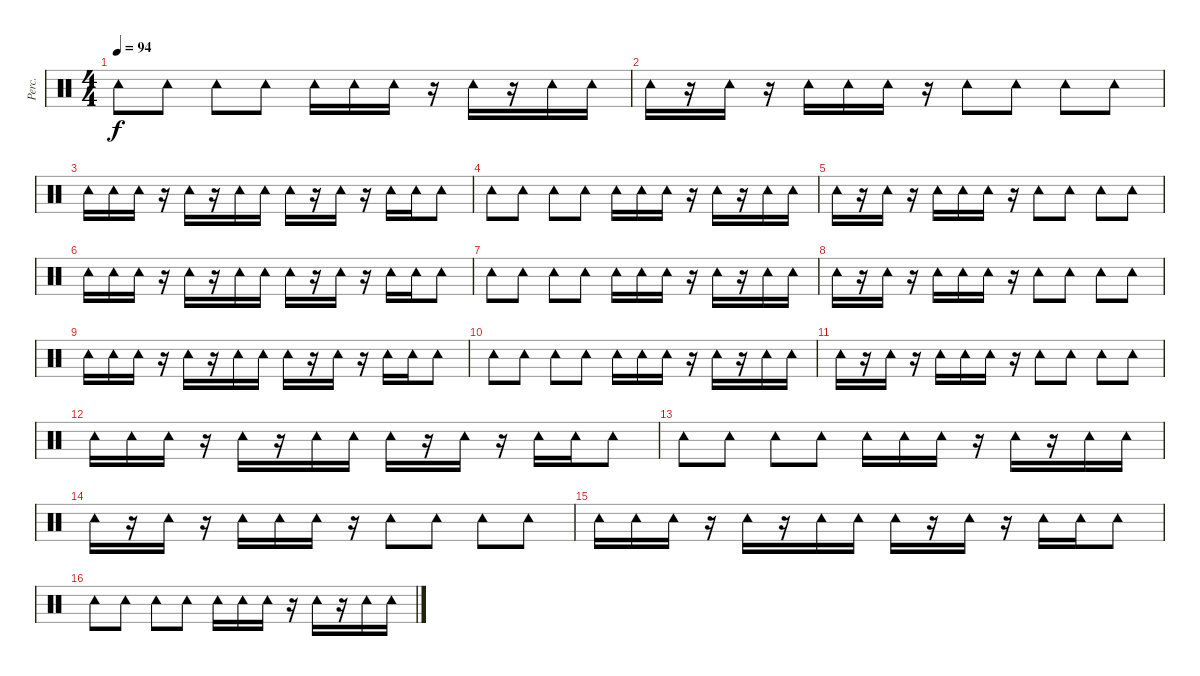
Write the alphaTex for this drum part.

\track ("Perc." "Perc.") {instrument percussion}
\staff {score}
\articulation defaults
\ts (4 4)
\tempo 94
\clef neutral
\ks c "Tambourine (hit)".8{dy f volume 6} "Tambourine (hit)".8 "Tambourine (hit)".8 "Tambourine (hit)".8 "Tambourine (hit)".16 "Tambourine (hit)".16 "Tambourine (hit)".16
r.16 "Tambourine (hit)".16 r.16 "Tambourine (hit)".16 "Tambourine (hit)".16 |
"Tambourine (hit)".16 r.16 "Tambourine (hit)".16 r.16 "Tambourine (hit)".16 "Tambourine (hit)".16 "Tambourine (hit)".16 r.16 "Tambourine (hit)".8 "Tambourine (hit)".8 "Tambourine (hit)".8 "Tambourine (hit)".8 |
"Tambourine (hit)".16 "Tambourine (hit)".16 "Tambourine (hit)".16 r.16 "Tambourine (hit)".16 r.16 "Tambourine (hit)".16 "Tambourine (hit)".16 "Tambourine (hit)".16 r.16 "Tambourine (hit)".16 r.16 "Tambourine (hit)".16 "Tambourine (hit)".16 "Tambourine (hit)".8 |
"Tambourine (hit)".8 "Tambourine (hit)".8 "Tambourine (hit)".8 "Tambourine (hit)".8 "Tambourine (hit)".16 "Tambourine (hit)".16 "Tambourine (hit)".16 r.16 "Tambourine (hit)".16 r.16 "Tambourine (hit)".16 "Tambourine (hit)".16 |
"Tambourine (hit)".16 r.16 "Tambourine (hit)".16 r.16 "Tambourine (hit)".16 "Tambourine (hit)".16 "Tambourine (hit)".16 r.16 "Tambourine (hit)".8 "Tambourine (hit)".8 "Tambourine (hit)".8 "Tambourine (hit)".8 |
"Tambourine (hit)".16 "Tambourine (hit)".16 "Tambourine (hit)".16 r.16 "Tambourine (hit)".16 r.16 "Tambourine (hit)".16 "Tambourine (hit)".16 "Tambourine (hit)".16 r.16 "Tambourine (hit)".16 r.16 "Tambourine (hit)".16 "Tambourine (hit)".16 "Tambourine (hit)".8 |
"Tambourine (hit)".8 "Tambourine (hit)".8 "Tambourine (hit)".8 "Tambourine (hit)".8 "Tambourine (hit)".16 "Tambourine (hit)".16 "Tambourine (hit)".16 r.16 "Tambourine (hit)".16 r.16 "Tambourine (hit)".16 "Tambourine (hit)".16 |
"Tambourine (hit)".16 r.16 "Tambourine (hit)".16 r.16 "Tambourine (hit)".16 "Tambourine (hit)".16 "Tambourine (hit)".16 r.16 "Tambourine (hit)".8 "Tambourine (hit)".8 "Tambourine (hit)".8 "Tambourine (hit)".8 |
"Tambourine (hit)".16 "Tambourine (hit)".16 "Tambourine (hit)".16 r.16 "Tambourine (hit)".16 r.16 "Tambourine (hit)".16 "Tambourine (hit)".16 "Tambourine (hit)".16 r.16 "Tambourine (hit)".16 r.16 "Tambourine (hit)".16 "Tambourine (hit)".16 "Tambourine (hit)".8 |
"Tambourine (hit)".8 "Tambourine (hit)".8 "Tambourine (hit)".8 "Tambourine (hit)".8 "Tambourine (hit)".16 "Tambourine (hit)".16 "Tambourine (hit)".16 r.16 "Tambourine (hit)".16 r.16 "Tambourine (hit)".16 "Tambourine (hit)".16 |
"Tambourine (hit)".16 r.16 "Tambourine (hit)".16 r.16 "Tambourine (hit)".16 "Tambourine (hit)".16 "Tambourine (hit)".16 r.16 "Tambourine (hit)".8 "Tambourine (hit)".8 "Tambourine (hit)".8 "Tambourine (hit)".8 |
"Tambourine (hit)".16 "Tambourine (hit)".16 "Tambourine (hit)".16 r.16 "Tambourine (hit)".16 r.16 "Tambourine (hit)".16 "Tambourine (hit)".16 "Tambourine (hit)".16 r.16 "Tambourine (hit)".16 r.16 "Tambourine (hit)".16 "Tambourine (hit)".16 "Tambourine (hit)".8 |
"Tambourine (hit)".8 "Tambourine (hit)".8 "Tambourine (hit)".8 "Tambourine (hit)".8 "Tambourine (hit)".16 "Tambourine (hit)".16 "Tambourine (hit)".16 r.16 "Tambourine (hit)".16 r.16 "Tambourine (hit)".16 "Tambourine (hit)".16 |
"Tambourine (hit)".16 r.16 "Tambourine (hit)".16 r.16 "Tambourine (hit)".16 "Tambourine (hit)".16 "Tambourine (hit)".16 r.16 "Tambourine (hit)".8 "Tambourine (hit)".8 "Tambourine (hit)".8 "Tambourine (hit)".8 |
"Tambourine (hit)".16 "Tambourine (hit)".16 "Tambourine (hit)".16 r.16 "Tambourine (hit)".16 r.16 "Tambourine (hit)".16 "Tambourine (hit)".16 "Tambourine (hit)".16 r.16 "Tambourine (hit)".16 r.16 "Tambourine (hit)".16 "Tambourine (hit)".16 "Tambourine (hit)".8 |
"Tambourine (hit)".8 "Tambourine (hit)".8 "Tambourine (hit)".8 "Tambourine (hit)".8 "Tambourine (hit)".16 "Tambourine (hit)".16 "Tambourine (hit)".16 r.16 "Tambourine (hit)".16 r.16 "Tambourine (hit)".16 "Tambourine (hit)".16
